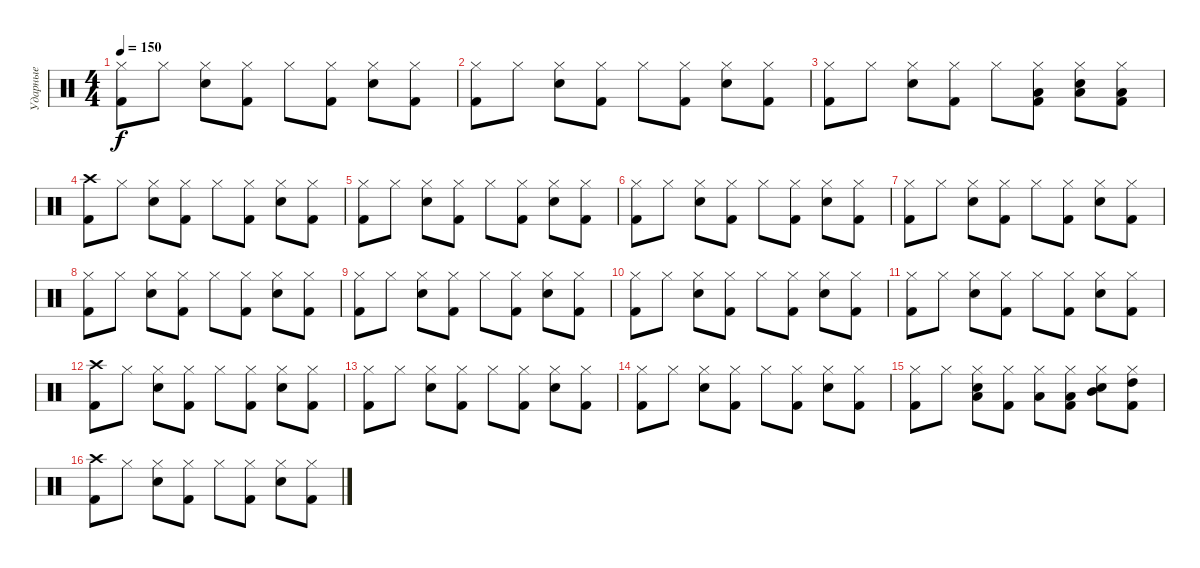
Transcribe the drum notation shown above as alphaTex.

\track ("Ударные" "Ударные") {instrument percussion}
\staff {score}
\articulation defaults
\ts (4 4)
\tempo 150
\clef neutral
\ks c
("Hi-Hat (closed)" "Kick (hit) 2").8{dy f} "Hi-Hat (closed)".8 ("Hi-Hat (closed)" "Snare (hit) 2").8 ("Hi-Hat (closed)" "Kick (hit) 2").8 "Hi-Hat (closed)".8 ("Hi-Hat (closed)" "Kick (hit) 2").8 ("Hi-Hat (closed)" "Snare (hit) 2").8 ("Hi-Hat (closed)" "Kick (hit) 2").8 |
("Hi-Hat (closed)" "Kick (hit) 2").8 "Hi-Hat (closed)".8 ("Hi-Hat (closed)" "Snare (hit) 2").8 ("Hi-Hat (closed)" "Kick (hit) 2").8 "Hi-Hat (closed)".8 ("Hi-Hat (closed)" "Kick (hit) 2").8 ("Hi-Hat (closed)" "Snare (hit) 2").8 ("Hi-Hat (closed)" "Kick (hit) 2").8 |
("Hi-Hat (closed)" "Kick (hit) 2").8 "Hi-Hat (closed)".8 ("Hi-Hat (closed)" "Snare (hit) 2").8 ("Hi-Hat (closed)" "Kick (hit) 2").8 "Hi-Hat (closed)".8 ("Hi-Hat (closed)" "Low Tom (hit)" "Kick (hit) 2").8 ("Hi-Hat (closed)" "Low Tom (hit)" "Snare (hit) 2").8 ("Hi-Hat (closed)" "Low Tom (hit)" "Kick (hit) 2").8 |
("Crash high (hit)" "Kick (hit) 2").8 "Hi-Hat (closed)".8 ("Snare (hit) 2" "Hi-Hat (closed)").8 ("Hi-Hat (closed)" "Kick (hit) 2").8 "Hi-Hat (closed)".8 ("Hi-Hat (closed)" "Kick (hit) 2").8 ("Snare (hit) 2" "Hi-Hat (closed)").8 ("Hi-Hat (closed)" "Kick (hit) 2").8 |
("Hi-Hat (closed)" "Kick (hit) 2").8 "Hi-Hat (closed)".8 ("Snare (hit) 2" "Hi-Hat (closed)").8 ("Hi-Hat (closed)" "Kick (hit) 2").8 "Hi-Hat (closed)".8 ("Hi-Hat (closed)" "Kick (hit) 2").8 ("Snare (hit) 2" "Hi-Hat (closed)").8 ("Hi-Hat (closed)" "Kick (hit) 2").8 |
("Hi-Hat (closed)" "Kick (hit) 2").8 "Hi-Hat (closed)".8 ("Snare (hit) 2" "Hi-Hat (closed)").8 ("Hi-Hat (closed)" "Kick (hit) 2").8 "Hi-Hat (closed)".8 ("Hi-Hat (closed)" "Kick (hit) 2").8 ("Snare (hit) 2" "Hi-Hat (closed)").8 ("Hi-Hat (closed)" "Kick (hit) 2").8 |
("Hi-Hat (closed)" "Kick (hit) 2").8 "Hi-Hat (closed)".8 ("Snare (hit) 2" "Hi-Hat (closed)").8 ("Hi-Hat (closed)" "Kick (hit) 2").8 "Hi-Hat (closed)".8 ("Hi-Hat (closed)" "Kick (hit) 2").8 ("Snare (hit) 2" "Hi-Hat (closed)").8 ("Hi-Hat (closed)" "Kick (hit) 2").8 |
("Hi-Hat (closed)" "Kick (hit) 2").8 "Hi-Hat (closed)".8 ("Snare (hit) 2" "Hi-Hat (closed)").8 ("Hi-Hat (closed)" "Kick (hit) 2").8 "Hi-Hat (closed)".8 ("Hi-Hat (closed)" "Kick (hit) 2").8 ("Snare (hit) 2" "Hi-Hat (closed)").8 ("Hi-Hat (closed)" "Kick (hit) 2").8 |
("Hi-Hat (closed)" "Kick (hit) 2").8 "Hi-Hat (closed)".8 ("Snare (hit) 2" "Hi-Hat (closed)").8 ("Hi-Hat (closed)" "Kick (hit) 2").8 "Hi-Hat (closed)".8 ("Hi-Hat (closed)" "Kick (hit) 2").8 ("Snare (hit) 2" "Hi-Hat (closed)").8 ("Hi-Hat (closed)" "Kick (hit) 2").8 |
("Hi-Hat (closed)" "Kick (hit) 2").8 "Hi-Hat (closed)".8 ("Snare (hit) 2" "Hi-Hat (closed)").8 ("Hi-Hat (closed)" "Kick (hit) 2").8 "Hi-Hat (closed)".8 ("Hi-Hat (closed)" "Kick (hit) 2").8 ("Snare (hit) 2" "Hi-Hat (closed)").8 ("Hi-Hat (closed)" "Kick (hit) 2").8 |
("Hi-Hat (closed)" "Kick (hit) 2").8 "Hi-Hat (closed)".8 ("Snare (hit) 2" "Hi-Hat (closed)").8 ("Hi-Hat (closed)" "Kick (hit) 2").8 "Hi-Hat (closed)".8 ("Hi-Hat (closed)" "Kick (hit) 2").8 ("Snare (hit) 2" "Hi-Hat (closed)").8 ("Hi-Hat (closed)" "Kick (hit) 2").8 |
("Crash high (hit)" "Kick (hit) 2").8 "Hi-Hat (closed)".8 ("Hi-Hat (closed)" "Snare (hit) 2").8 ("Hi-Hat (closed)" "Kick (hit) 2").8 "Hi-Hat (closed)".8 ("Hi-Hat (closed)" "Kick (hit) 2").8 ("Hi-Hat (closed)" "Snare (hit) 2").8 ("Hi-Hat (closed)" "Kick (hit) 2").8 |
("Hi-Hat (closed)" "Kick (hit) 2").8 "Hi-Hat (closed)".8 ("Hi-Hat (closed)" "Snare (hit) 2").8 ("Hi-Hat (closed)" "Kick (hit) 2").8 "Hi-Hat (closed)".8 ("Hi-Hat (closed)" "Kick (hit) 2").8 ("Hi-Hat (closed)" "Snare (hit) 2").8 ("Hi-Hat (closed)" "Kick (hit) 2").8 |
("Hi-Hat (closed)" "Kick (hit) 2").8 "Hi-Hat (closed)".8 ("Hi-Hat (closed)" "Snare (hit) 2").8 ("Hi-Hat (closed)" "Kick (hit) 2").8 "Hi-Hat (closed)".8 ("Hi-Hat (closed)" "Kick (hit) 2").8 ("Hi-Hat (closed)" "Snare (hit) 2").8 ("Hi-Hat (closed)" "Kick (hit) 2").8 |
("Hi-Hat (closed)" "Kick (hit) 2").8 "Hi-Hat (closed)".8 ("Hi-Hat (closed)" "Low Tom (hit)" "Snare (hit) 2").8 ("Hi-Hat (closed)" "Kick (hit) 2").8 ("Hi-Hat (closed)" "Low Tom (hit)").8 ("Hi-Hat (closed)" "Low Tom (hit)" "Kick (hit) 2").8 ("Hi-Hat (closed)" "Mid Tom (hit)" "Snare (hit) 2").8 ("Hi-Hat (closed)" "High Tom (hit)" "Kick (hit) 2").8 |
("Crash high (hit)" "Kick (hit) 2").8 "Hi-Hat (closed)".8 ("Hi-Hat (closed)" "Snare (hit) 2").8 ("Hi-Hat (closed)" "Kick (hit) 2").8 "Hi-Hat (closed)".8 ("Hi-Hat (closed)" "Kick (hit) 2").8 ("Hi-Hat (closed)" "Snare (hit) 2").8 ("Hi-Hat (closed)" "Kick (hit) 2").8
